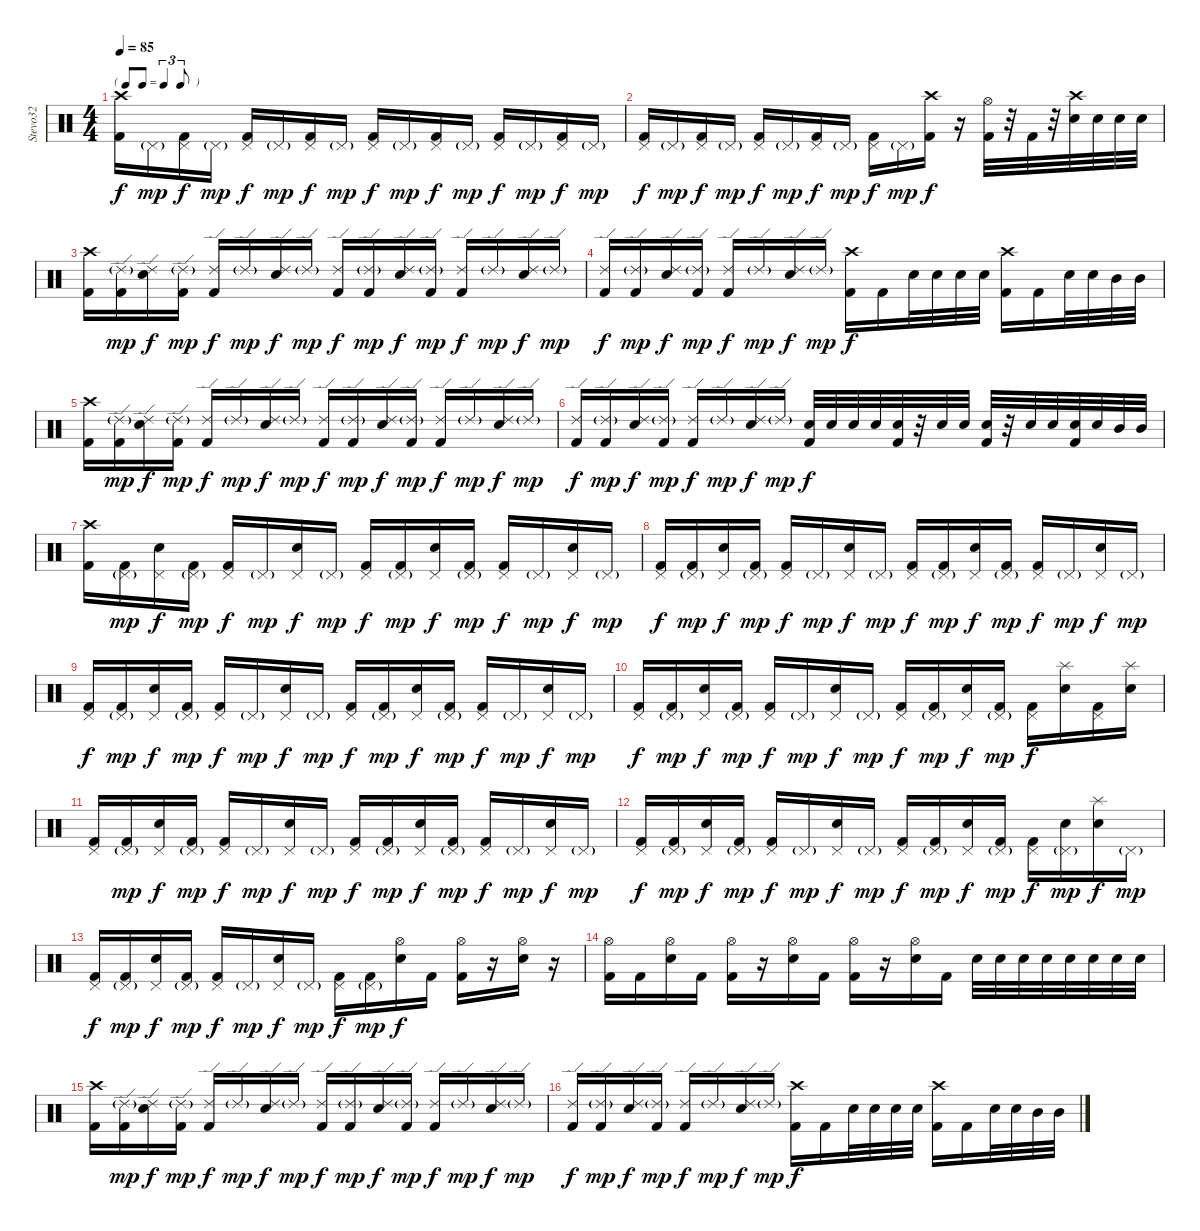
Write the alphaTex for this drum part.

\track ("Stevo32" "Stevo32") {instrument percussion}
\staff {score}
\articulation defaults
\ts (4 4)
\tf triplet8th
\tempo 85
\clef neutral
\ks c
("Crash high (hit)" "Kick (hit) 2").16{dy f} "Pedal Hi-Hat (hit)"{g}.16{dy mp} ("Pedal Hi-Hat (hit)" "Kick (hit) 2").16{dy f} "Pedal Hi-Hat (hit)"{g}.16{dy mp} ("Pedal Hi-Hat (hit)" "Kick (hit) 2").16{dy f} "Pedal Hi-Hat (hit)"{g}.16{dy mp} ("Pedal Hi-Hat (hit)" "Kick (hit) 2").16{dy f} "Pedal Hi-Hat (hit)"{g}.16{dy mp} ("Pedal Hi-Hat (hit)" "Kick (hit) 2").16{dy f} "Pedal Hi-Hat (hit)"{g}.16{dy mp} ("Pedal Hi-Hat (hit)" "Kick (hit) 2").16{dy f} "Pedal Hi-Hat (hit)"{g}.16{dy mp} ("Pedal Hi-Hat (hit)" "Kick (hit) 2").16{dy f} "Pedal Hi-Hat (hit)"{g}.16{dy mp} ("Pedal Hi-Hat (hit)" "Kick (hit) 2").16{dy f} "Pedal Hi-Hat (hit)"{g}.16{dy mp} |
("Pedal Hi-Hat (hit)" "Kick (hit) 2").16{dy f} "Pedal Hi-Hat (hit)"{g}.16{dy mp} ("Pedal Hi-Hat (hit)" "Kick (hit) 2").16{dy f} "Pedal Hi-Hat (hit)"{g}.16{dy mp} ("Pedal Hi-Hat (hit)" "Kick (hit) 2").16{dy f} "Pedal Hi-Hat (hit)"{g}.16{dy mp} ("Pedal Hi-Hat (hit)" "Kick (hit) 2").16{dy f} "Pedal Hi-Hat (hit)"{g}.16{dy mp} ("Pedal Hi-Hat (hit)" "Kick (hit) 2").16{dy f} "Pedal Hi-Hat (hit)"{g}.16{dy mp} ("Crash high (hit)" "Kick (hit) 2").16{dy f} r.16 ("Hi-Hat (open)" "Kick (hit) 2").32 r.32 "Kick (hit) 2".32 r.32 ("Crash high (hit)" "Electric Snare (hit)").32 "Electric Snare (hit)".32 "Electric Snare (hit)".32 "Electric Snare (hit)".32 |
("Crash high (hit)" "Kick (hit) 2").16 ("Ride (edge) 2"{g} "Kick (hit) 2").16{dy mp} ("Ride (edge) 2" "Electric Snare (hit)").16{dy f} ("Ride (edge) 2"{g} "Kick (hit) 2").16{dy mp} ("Ride (edge) 2" "Kick (hit) 2").16{dy f} "Ride (edge) 2"{g}.16{dy mp} ("Ride (edge) 2" "Electric Snare (hit)").16{dy f} "Ride (edge) 2"{g}.16{dy mp} ("Ride (edge) 2" "Kick (hit) 2").16{dy f} ("Ride (edge) 2"{g} "Kick (hit) 2").16{dy mp} ("Ride (edge) 2" "Electric Snare (hit)").16{dy f} ("Ride (edge) 2"{g} "Kick (hit) 2").16{dy mp} ("Ride (edge) 2" "Kick (hit) 2").16{dy f} "Ride (edge) 2"{g}.16{dy mp} ("Ride (edge) 2" "Electric Snare (hit)").16{dy f} "Ride (edge) 2"{g}.16{dy mp} |
("Ride (edge) 2" "Kick (hit) 2").16{dy f} ("Ride (edge) 2"{g} "Kick (hit) 2").16{dy mp} ("Ride (edge) 2" "Electric Snare (hit)").16{dy f} ("Ride (edge) 2"{g} "Kick (hit) 2").16{dy mp} ("Ride (edge) 2" "Kick (hit) 2").16{dy f} "Ride (edge) 2"{g}.16{dy mp} ("Ride (edge) 2" "Electric Snare (hit)").16{dy f} "Ride (edge) 2"{g}.16{dy mp} ("Crash high (hit)" "Kick (hit) 2").16{dy f} "Kick (hit) 2".16 "Electric Snare (hit)".32 "Electric Snare (hit)".32 "Electric Snare (hit)".32 "Electric Snare (hit)".32 ("Crash high (hit)" "Kick (hit) 2").16 "Kick (hit) 2".16 "Electric Snare (hit)".32 "Electric Snare (hit)".32 "Mid Tom (hit)".32 "Mid Tom (hit)".32 |
("Crash high (hit)" "Kick (hit) 2").16 ("Ride (edge) 2"{g} "Kick (hit) 2").16{dy mp} ("Ride (edge) 2" "Electric Snare (hit)").16{dy f} ("Ride (edge) 2"{g} "Kick (hit) 2").16{dy mp} ("Ride (edge) 2" "Kick (hit) 2").16{dy f} "Ride (edge) 2"{g}.16{dy mp} ("Ride (edge) 2" "Electric Snare (hit)").16{dy f} "Ride (edge) 2"{g}.16{dy mp} ("Ride (edge) 2" "Kick (hit) 2").16{dy f} ("Ride (edge) 2"{g} "Kick (hit) 2").16{dy mp} ("Ride (edge) 2" "Electric Snare (hit)").16{dy f} ("Ride (edge) 2"{g} "Kick (hit) 2").16{dy mp} ("Ride (edge) 2" "Kick (hit) 2").16{dy f} "Ride (edge) 2"{g}.16{dy mp} ("Ride (edge) 2" "Electric Snare (hit)").16{dy f} "Ride (edge) 2"{g}.16{dy mp} |
("Ride (edge) 2" "Kick (hit) 2").16{dy f} ("Ride (edge) 2"{g} "Kick (hit) 2").16{dy mp} ("Ride (edge) 2" "Electric Snare (hit)").16{dy f} ("Ride (edge) 2"{g} "Kick (hit) 2").16{dy mp} ("Ride (edge) 2" "Kick (hit) 2").16{dy f} "Ride (edge) 2"{g}.16{dy mp} ("Ride (edge) 2" "Electric Snare (hit)").16{dy f} "Ride (edge) 2"{g}.16{dy mp} ("Electric Snare (hit)" "Kick (hit) 2").32{dy f} "Electric Snare (hit)".32 "Electric Snare (hit)".32 "Electric Snare (hit)".32 ("Electric Snare (hit)" "Kick (hit) 2").32 r.32 "Electric Snare (hit)".32 "Electric Snare (hit)".32 ("Electric Snare (hit)" "Kick (hit) 2").32 r.32 "Electric Snare (hit)".32 "Electric Snare (hit)".32 ("Electric Snare (hit)" "Kick (hit) 2").32 "Electric Snare (hit)".32 "Mid Tom (hit)".32 "Mid Tom (hit)".32 |
("Crash high (hit)" "Kick (hit) 2").16 ("Pedal Hi-Hat (hit)"{g} "Kick (hit) 2").16{dy mp} ("Pedal Hi-Hat (hit)" "Electric Snare (hit)").16{dy f} ("Pedal Hi-Hat (hit)"{g} "Kick (hit) 2").16{dy mp} ("Pedal Hi-Hat (hit)" "Kick (hit) 2").16{dy f} "Pedal Hi-Hat (hit)"{g}.16{dy mp} ("Pedal Hi-Hat (hit)" "Electric Snare (hit)").16{dy f} "Pedal Hi-Hat (hit)"{g}.16{dy mp} ("Pedal Hi-Hat (hit)" "Kick (hit) 2").16{dy f} ("Pedal Hi-Hat (hit)"{g} "Kick (hit) 2").16{dy mp} ("Pedal Hi-Hat (hit)" "Electric Snare (hit)").16{dy f} ("Pedal Hi-Hat (hit)"{g} "Kick (hit) 2").16{dy mp} ("Pedal Hi-Hat (hit)" "Kick (hit) 2").16{dy f} "Pedal Hi-Hat (hit)"{g}.16{dy mp} ("Pedal Hi-Hat (hit)" "Electric Snare (hit)").16{dy f} "Pedal Hi-Hat (hit)"{g}.16{dy mp} |
("Pedal Hi-Hat (hit)" "Kick (hit) 2").16{dy f} ("Pedal Hi-Hat (hit)"{g} "Kick (hit) 2").16{dy mp} ("Pedal Hi-Hat (hit)" "Electric Snare (hit)").16{dy f} ("Pedal Hi-Hat (hit)"{g} "Kick (hit) 2").16{dy mp} ("Pedal Hi-Hat (hit)" "Kick (hit) 2").16{dy f} "Pedal Hi-Hat (hit)"{g}.16{dy mp} ("Pedal Hi-Hat (hit)" "Electric Snare (hit)").16{dy f} "Pedal Hi-Hat (hit)"{g}.16{dy mp} ("Pedal Hi-Hat (hit)" "Kick (hit) 2").16{dy f} ("Pedal Hi-Hat (hit)"{g} "Kick (hit) 2").16{dy mp} ("Pedal Hi-Hat (hit)" "Electric Snare (hit)").16{dy f} ("Pedal Hi-Hat (hit)"{g} "Kick (hit) 2").16{dy mp} ("Pedal Hi-Hat (hit)" "Kick (hit) 2").16{dy f} "Pedal Hi-Hat (hit)"{g}.16{dy mp} ("Pedal Hi-Hat (hit)" "Electric Snare (hit)").16{dy f} "Pedal Hi-Hat (hit)"{g}.16{dy mp} |
("Pedal Hi-Hat (hit)" "Kick (hit) 2").16{dy f} ("Pedal Hi-Hat (hit)"{g} "Kick (hit) 2").16{dy mp} ("Pedal Hi-Hat (hit)" "Electric Snare (hit)").16{dy f} ("Pedal Hi-Hat (hit)"{g} "Kick (hit) 2").16{dy mp} ("Pedal Hi-Hat (hit)" "Kick (hit) 2").16{dy f} "Pedal Hi-Hat (hit)"{g}.16{dy mp} ("Pedal Hi-Hat (hit)" "Electric Snare (hit)").16{dy f} "Pedal Hi-Hat (hit)"{g}.16{dy mp} ("Pedal Hi-Hat (hit)" "Kick (hit) 2").16{dy f} ("Pedal Hi-Hat (hit)"{g} "Kick (hit) 2").16{dy mp} ("Pedal Hi-Hat (hit)" "Electric Snare (hit)").16{dy f} ("Pedal Hi-Hat (hit)"{g} "Kick (hit) 2").16{dy mp} ("Pedal Hi-Hat (hit)" "Kick (hit) 2").16{dy f} "Pedal Hi-Hat (hit)"{g}.16{dy mp} ("Pedal Hi-Hat (hit)" "Electric Snare (hit)").16{dy f} "Pedal Hi-Hat (hit)"{g}.16{dy mp} |
("Pedal Hi-Hat (hit)" "Kick (hit) 2").16{dy f} ("Pedal Hi-Hat (hit)"{g} "Kick (hit) 2").16{dy mp} ("Pedal Hi-Hat (hit)" "Electric Snare (hit)").16{dy f} ("Pedal Hi-Hat (hit)"{g} "Kick (hit) 2").16{dy mp} ("Pedal Hi-Hat (hit)" "Kick (hit) 2").16{dy f} "Pedal Hi-Hat (hit)"{g}.16{dy mp} ("Pedal Hi-Hat (hit)" "Electric Snare (hit)").16{dy f} "Pedal Hi-Hat (hit)"{g}.16{dy mp} ("Pedal Hi-Hat (hit)" "Kick (hit) 2").16{dy f} ("Pedal Hi-Hat (hit)"{g} "Kick (hit) 2").16{dy mp} ("Pedal Hi-Hat (hit)" "Electric Snare (hit)").16{dy f} ("Pedal Hi-Hat (hit)"{g} "Kick (hit) 2").16{dy mp} ("Pedal Hi-Hat (hit)" "Kick (hit) 2").16{dy f} ("Splash (hit)" "Electric Snare (hit)").16 ("Pedal Hi-Hat (hit)" "Kick (hit) 2").16 ("Splash (hit)" "Electric Snare (hit)").16 |
("Pedal Hi-Hat (hit)" "Kick (hit) 2").16 ("Pedal Hi-Hat (hit)"{g} "Kick (hit) 2").16{dy mp} ("Pedal Hi-Hat (hit)" "Electric Snare (hit)").16{dy f} ("Pedal Hi-Hat (hit)"{g} "Kick (hit) 2").16{dy mp} ("Pedal Hi-Hat (hit)" "Kick (hit) 2").16{dy f} "Pedal Hi-Hat (hit)"{g}.16{dy mp} ("Pedal Hi-Hat (hit)" "Electric Snare (hit)").16{dy f} "Pedal Hi-Hat (hit)"{g}.16{dy mp} ("Pedal Hi-Hat (hit)" "Kick (hit) 2").16{dy f} ("Pedal Hi-Hat (hit)"{g} "Kick (hit) 2").16{dy mp} ("Pedal Hi-Hat (hit)" "Electric Snare (hit)").16{dy f} ("Pedal Hi-Hat (hit)"{g} "Kick (hit) 2").16{dy mp} ("Pedal Hi-Hat (hit)" "Kick (hit) 2").16{dy f} "Pedal Hi-Hat (hit)"{g}.16{dy mp} ("Pedal Hi-Hat (hit)" "Electric Snare (hit)").16{dy f} "Pedal Hi-Hat (hit)"{g}.16{dy mp} |
("Pedal Hi-Hat (hit)" "Kick (hit) 2").16{dy f} ("Pedal Hi-Hat (hit)"{g} "Kick (hit) 2").16{dy mp} ("Pedal Hi-Hat (hit)" "Electric Snare (hit)").16{dy f} ("Pedal Hi-Hat (hit)"{g} "Kick (hit) 2").16{dy mp} ("Pedal Hi-Hat (hit)" "Kick (hit) 2").16{dy f} "Pedal Hi-Hat (hit)"{g}.16{dy mp} ("Pedal Hi-Hat (hit)" "Electric Snare (hit)").16{dy f} "Pedal Hi-Hat (hit)"{g}.16{dy mp} ("Pedal Hi-Hat (hit)" "Kick (hit) 2").16{dy f} ("Pedal Hi-Hat (hit)"{g} "Kick (hit) 2").16{dy mp} ("Pedal Hi-Hat (hit)" "Electric Snare (hit)").16{dy f} ("Pedal Hi-Hat (hit)"{g} "Kick (hit) 2").16{dy mp} ("Pedal Hi-Hat (hit)" "Kick (hit) 2").16{dy f} ("Pedal Hi-Hat (hit)"{g} "Electric Snare (hit)").16{dy mp} ("Splash (hit)" "Electric Snare (hit)").16{dy f} "Pedal Hi-Hat (hit)"{g}.16{dy mp} |
("Pedal Hi-Hat (hit)" "Kick (hit) 2").16{dy f} ("Pedal Hi-Hat (hit)"{g} "Kick (hit) 2").16{dy mp} ("Pedal Hi-Hat (hit)" "Electric Snare (hit)").16{dy f} ("Pedal Hi-Hat (hit)"{g} "Kick (hit) 2").16{dy mp} ("Pedal Hi-Hat (hit)" "Kick (hit) 2").16{dy f} "Pedal Hi-Hat (hit)"{g}.16{dy mp} ("Pedal Hi-Hat (hit)" "Electric Snare (hit)").16{dy f} "Pedal Hi-Hat (hit)"{g}.16{dy mp} ("Pedal Hi-Hat (hit)" "Kick (hit) 2").16{dy f} ("Pedal Hi-Hat (hit)"{g} "Kick (hit) 2").16{dy mp} ("Hi-Hat (open)" "Electric Snare (hit)").16{dy f} "Kick (hit) 2".16 ("Hi-Hat (open)" "Kick (hit) 2").16 r.16 ("Hi-Hat (open)" "Electric Snare (hit)").16 r.16 |
("Hi-Hat (open)" "Kick (hit) 2").16 "Kick (hit) 2".16 ("Hi-Hat (open)" "Electric Snare (hit)").16 "Kick (hit) 2".16 ("Hi-Hat (open)" "Kick (hit) 2").16 r.16 ("Hi-Hat (open)" "Electric Snare (hit)").16 "Kick (hit) 2".16 ("Hi-Hat (open)" "Kick (hit) 2").16 r.16 ("Hi-Hat (open)" "Electric Snare (hit)").16 "Kick (hit) 2".16 "Electric Snare (hit)".32 "Electric Snare (hit)".32 "Electric Snare (hit)".32 "Electric Snare (hit)".32 "Electric Snare (hit)".32 "Electric Snare (hit)".32 "Electric Snare (hit)".32 "Electric Snare (hit)".32 |
("Crash high (hit)" "Kick (hit) 2").16 ("Ride (edge) 2"{g} "Kick (hit) 2").16{dy mp} ("Ride (edge) 2" "Electric Snare (hit)").16{dy f} ("Ride (edge) 2"{g} "Kick (hit) 2").16{dy mp} ("Ride (edge) 2" "Kick (hit) 2").16{dy f} "Ride (edge) 2"{g}.16{dy mp} ("Ride (edge) 2" "Electric Snare (hit)").16{dy f} "Ride (edge) 2"{g}.16{dy mp} ("Ride (edge) 2" "Kick (hit) 2").16{dy f} ("Ride (edge) 2"{g} "Kick (hit) 2").16{dy mp} ("Ride (edge) 2" "Electric Snare (hit)").16{dy f} ("Ride (edge) 2"{g} "Kick (hit) 2").16{dy mp} ("Ride (edge) 2" "Kick (hit) 2").16{dy f} "Ride (edge) 2"{g}.16{dy mp} ("Ride (edge) 2" "Electric Snare (hit)").16{dy f} "Ride (edge) 2"{g}.16{dy mp} |
("Ride (edge) 2" "Kick (hit) 2").16{dy f} ("Ride (edge) 2"{g} "Kick (hit) 2").16{dy mp} ("Ride (edge) 2" "Electric Snare (hit)").16{dy f} ("Ride (edge) 2"{g} "Kick (hit) 2").16{dy mp} ("Ride (edge) 2" "Kick (hit) 2").16{dy f} "Ride (edge) 2"{g}.16{dy mp} ("Ride (edge) 2" "Electric Snare (hit)").16{dy f} "Ride (edge) 2"{g}.16{dy mp} ("Crash high (hit)" "Kick (hit) 2").16{dy f} "Kick (hit) 2".16 "Electric Snare (hit)".32 "Electric Snare (hit)".32 "Electric Snare (hit)".32 "Electric Snare (hit)".32 ("Crash high (hit)" "Kick (hit) 2").16 "Kick (hit) 2".16 "Electric Snare (hit)".32 "Electric Snare (hit)".32 "Mid Tom (hit)".32 "Mid Tom (hit)".32
